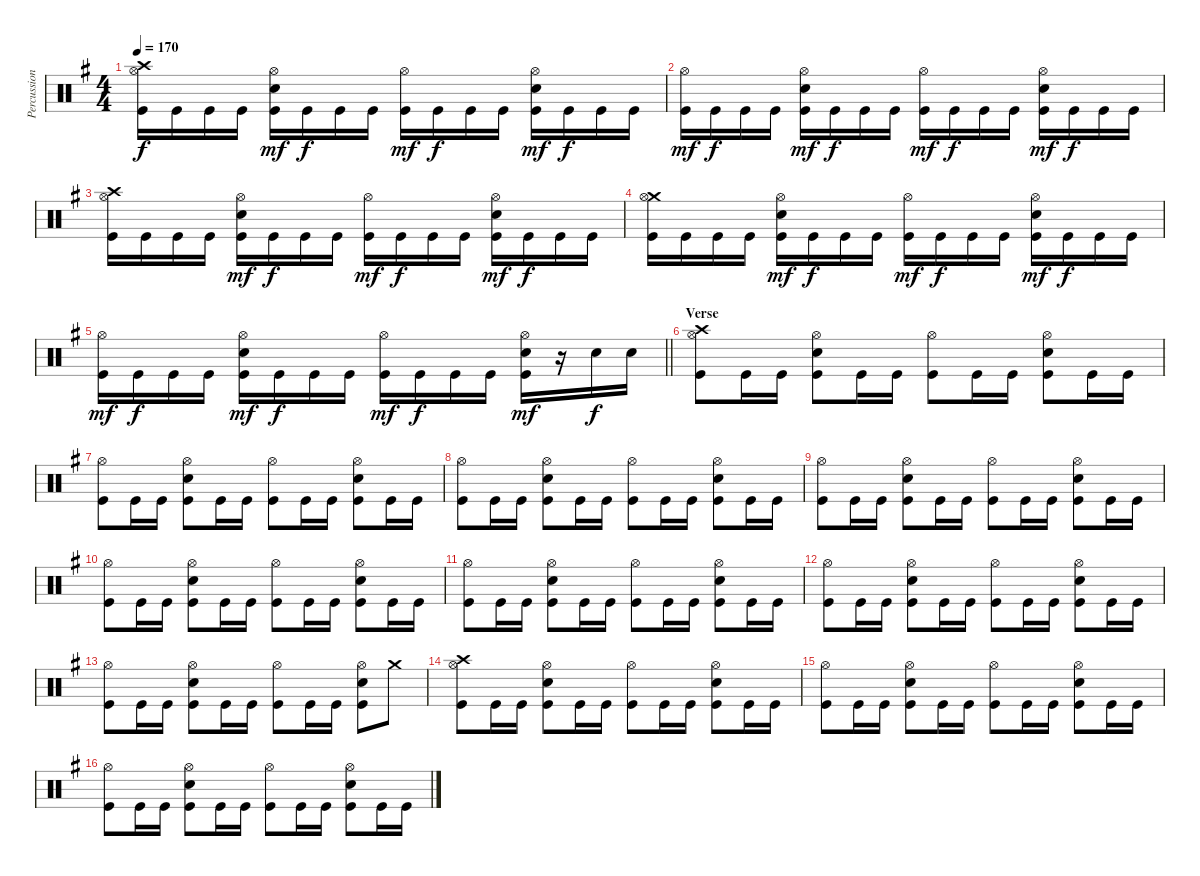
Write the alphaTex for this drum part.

\track ("Percussion" "Percussion") {instrument percussion}
\staff {score}
\articulation defaults
\ts (4 4)
\tempo 170
\clef neutral
\ks g
("Crash high (hit)" "Hi-Hat (open)" "Kick (hit)").16{dy f} "Kick (hit)".16 "Kick (hit)".16 "Kick (hit)".16 ("Hi-Hat (open)" "Snare (hit) 2" "Kick (hit)").16{dy mf} "Kick (hit)".16{dy f} "Kick (hit)".16 "Kick (hit)".16 ("Hi-Hat (open)" "Kick (hit)").16{dy mf} "Kick (hit)".16{dy f} "Kick (hit)".16 "Kick (hit)".16 ("Hi-Hat (open)" "Snare (hit) 2" "Kick (hit)").16{dy mf} "Kick (hit)".16{dy f} "Kick (hit)".16 "Kick (hit)".16 |
("Hi-Hat (open)" "Kick (hit)").16{dy mf} "Kick (hit)".16{dy f} "Kick (hit)".16 "Kick (hit)".16 ("Hi-Hat (open)" "Snare (hit) 2" "Kick (hit)").16{dy mf} "Kick (hit)".16{dy f} "Kick (hit)".16 "Kick (hit)".16 ("Hi-Hat (open)" "Kick (hit)").16{dy mf} "Kick (hit)".16{dy f} "Kick (hit)".16 "Kick (hit)".16 ("Hi-Hat (open)" "Snare (hit) 2" "Kick (hit)").16{dy mf} "Kick (hit)".16{dy f} "Kick (hit)".16 "Kick (hit)".16 |
("Crash high (hit)" "Hi-Hat (open)" "Kick (hit)").16 "Kick (hit)".16 "Kick (hit)".16 "Kick (hit)".16 ("Hi-Hat (open)" "Snare (hit) 2" "Kick (hit)").16{dy mf} "Kick (hit)".16{dy f} "Kick (hit)".16 "Kick (hit)".16 ("Hi-Hat (open)" "Kick (hit)").16{dy mf} "Kick (hit)".16{dy f} "Kick (hit)".16 "Kick (hit)".16 ("Hi-Hat (open)" "Snare (hit) 2" "Kick (hit)").16{dy mf} "Kick (hit)".16{dy f} "Kick (hit)".16 "Kick (hit)".16 |
("Crash medium (hit)" "Hi-Hat (open)" "Kick (hit)").16 "Kick (hit)".16 "Kick (hit)".16 "Kick (hit)".16 ("Hi-Hat (open)" "Snare (hit) 2" "Kick (hit)").16{dy mf} "Kick (hit)".16{dy f} "Kick (hit)".16 "Kick (hit)".16 ("Hi-Hat (open)" "Kick (hit)").16{dy mf} "Kick (hit)".16{dy f} "Kick (hit)".16 "Kick (hit)".16 ("Hi-Hat (open)" "Snare (hit) 2" "Kick (hit)").16{dy mf} "Kick (hit)".16{dy f} "Kick (hit)".16 "Kick (hit)".16 |
\barLineRight lightlight
("Hi-Hat (open)" "Kick (hit)").16{dy mf} "Kick (hit)".16{dy f} "Kick (hit)".16 "Kick (hit)".16 ("Hi-Hat (open)" "Snare (hit) 2" "Kick (hit)").16{dy mf} "Kick (hit)".16{dy f} "Kick (hit)".16 "Kick (hit)".16 ("Hi-Hat (open)" "Kick (hit)").16{dy mf} "Kick (hit)".16{dy f} "Kick (hit)".16 "Kick (hit)".16 ("Hi-Hat (open)" "Snare (hit) 2" "Kick (hit)").16{dy mf} r.16 "Snare (hit) 2".16{dy f} "Snare (hit) 2".16 |
\section ("" "Verse")
("Crash high (hit)" "Hi-Hat (open)" "Kick (hit)").8 "Kick (hit)".16 "Kick (hit)".16 ("Hi-Hat (open)" "Snare (hit) 2" "Kick (hit)").8 "Kick (hit)".16 "Kick (hit)".16 ("Hi-Hat (open)" "Kick (hit)").8 "Kick (hit)".16 "Kick (hit)".16 ("Hi-Hat (open)" "Snare (hit) 2" "Kick (hit)").8 "Kick (hit)".16 "Kick (hit)".16 |
("Hi-Hat (open)" "Kick (hit)").8 "Kick (hit)".16 "Kick (hit)".16 ("Hi-Hat (open)" "Snare (hit) 2" "Kick (hit)").8 "Kick (hit)".16 "Kick (hit)".16 ("Hi-Hat (open)" "Kick (hit)").8 "Kick (hit)".16 "Kick (hit)".16 ("Hi-Hat (open)" "Snare (hit) 2" "Kick (hit)").8 "Kick (hit)".16 "Kick (hit)".16 |
("Hi-Hat (open)" "Kick (hit)").8 "Kick (hit)".16 "Kick (hit)".16 ("Hi-Hat (open)" "Snare (hit) 2" "Kick (hit)").8 "Kick (hit)".16 "Kick (hit)".16 ("Hi-Hat (open)" "Kick (hit)").8 "Kick (hit)".16 "Kick (hit)".16 ("Hi-Hat (open)" "Snare (hit) 2" "Kick (hit)").8 "Kick (hit)".16 "Kick (hit)".16 |
("Hi-Hat (open)" "Kick (hit)").8 "Kick (hit)".16 "Kick (hit)".16 ("Hi-Hat (open)" "Snare (hit) 2" "Kick (hit)").8 "Kick (hit)".16 "Kick (hit)".16 ("Hi-Hat (open)" "Kick (hit)").8 "Kick (hit)".16 "Kick (hit)".16 ("Hi-Hat (open)" "Snare (hit) 2" "Kick (hit)").8 "Kick (hit)".16 "Kick (hit)".16 |
("Hi-Hat (open)" "Kick (hit)").8 "Kick (hit)".16 "Kick (hit)".16 ("Hi-Hat (open)" "Snare (hit) 2" "Kick (hit)").8 "Kick (hit)".16 "Kick (hit)".16 ("Hi-Hat (open)" "Kick (hit)").8 "Kick (hit)".16 "Kick (hit)".16 ("Hi-Hat (open)" "Snare (hit) 2" "Kick (hit)").8 "Kick (hit)".16 "Kick (hit)".16 |
("Hi-Hat (open)" "Kick (hit)").8 "Kick (hit)".16 "Kick (hit)".16 ("Hi-Hat (open)" "Snare (hit) 2" "Kick (hit)").8 "Kick (hit)".16 "Kick (hit)".16 ("Hi-Hat (open)" "Kick (hit)").8 "Kick (hit)".16 "Kick (hit)".16 ("Hi-Hat (open)" "Snare (hit) 2" "Kick (hit)").8 "Kick (hit)".16 "Kick (hit)".16 |
("Hi-Hat (open)" "Kick (hit)").8 "Kick (hit)".16 "Kick (hit)".16 ("Hi-Hat (open)" "Snare (hit) 2" "Kick (hit)").8 "Kick (hit)".16 "Kick (hit)".16 ("Hi-Hat (open)" "Kick (hit)").8 "Kick (hit)".16 "Kick (hit)".16 ("Hi-Hat (open)" "Snare (hit) 2" "Kick (hit)").8 "Kick (hit)".16 "Kick (hit)".16 |
("Hi-Hat (open)" "Kick (hit)").8 "Kick (hit)".16 "Kick (hit)".16 ("Hi-Hat (open)" "Snare (hit) 2" "Kick (hit)").8 "Kick (hit)".16 "Kick (hit)".16 ("Hi-Hat (open)" "Kick (hit)").8 "Kick (hit)".16 "Kick (hit)".16 ("Hi-Hat (open)" "Snare (hit) 2" "Kick (hit)").8 "Crash medium (hit)".8 |
("Crash high (hit)" "Hi-Hat (open)" "Kick (hit)").8 "Kick (hit)".16 "Kick (hit)".16 ("Hi-Hat (open)" "Snare (hit) 2" "Kick (hit)").8 "Kick (hit)".16 "Kick (hit)".16 ("Hi-Hat (open)" "Kick (hit)").8 "Kick (hit)".16 "Kick (hit)".16 ("Hi-Hat (open)" "Snare (hit) 2" "Kick (hit)").8 "Kick (hit)".16 "Kick (hit)".16 |
("Hi-Hat (open)" "Kick (hit)").8 "Kick (hit)".16 "Kick (hit)".16 ("Hi-Hat (open)" "Snare (hit) 2" "Kick (hit)").8 "Kick (hit)".16 "Kick (hit)".16 ("Hi-Hat (open)" "Kick (hit)").8 "Kick (hit)".16 "Kick (hit)".16 ("Hi-Hat (open)" "Snare (hit) 2" "Kick (hit)").8 "Kick (hit)".16 "Kick (hit)".16 |
("Hi-Hat (open)" "Kick (hit)").8 "Kick (hit)".16 "Kick (hit)".16 ("Hi-Hat (open)" "Snare (hit) 2" "Kick (hit)").8 "Kick (hit)".16 "Kick (hit)".16 ("Hi-Hat (open)" "Kick (hit)").8 "Kick (hit)".16 "Kick (hit)".16 ("Hi-Hat (open)" "Snare (hit) 2" "Kick (hit)").8 "Kick (hit)".16 "Kick (hit)".16
